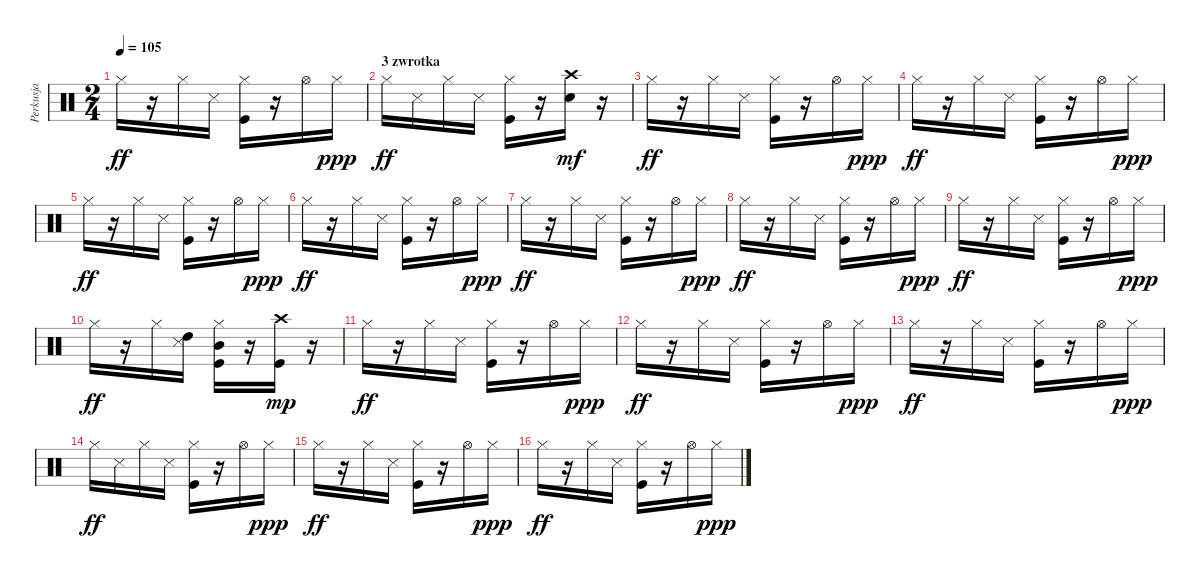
\track ("Perkusja" "Perkusja") {instrument percussion}
\staff {score}
\articulation defaults
\ts (2 4)
\tempo 105
\clef neutral
\ks c "Hi-Hat (closed)".16{dy ff}
r.16 "Hi-Hat (closed)".16 "Snare (side stick) 3".16 ("Kick (hit)" "Hi-Hat (closed)").16 r.16 "Hi-Hat (open)".16 "Hi-Hat (closed)".16{dy ppp} |
\section ("" "3 zwrotka ")
"Hi-Hat (closed)".16{dy ff} "Snare (side stick) 3".16 "Hi-Hat (closed)".16 "Snare (side stick) 3".16 ("Kick (hit)" "Hi-Hat (closed)").16 r.16 ("Snare (hit) 2" "Crash high (hit)").16{dy mf} r.16 |
"Hi-Hat (closed)".16{dy ff} r.16 "Hi-Hat (closed)".16 "Snare (side stick) 3".16 ("Kick (hit)" "Hi-Hat (closed)").16 r.16 "Hi-Hat (open)".16 "Hi-Hat (closed)".16{dy ppp} |
"Hi-Hat (closed)".16{dy ff} r.16 "Hi-Hat (closed)".16 "Snare (side stick) 3".16 ("Kick (hit)" "Hi-Hat (closed)").16 r.16 "Hi-Hat (open)".16 "Hi-Hat (closed)".16{dy ppp} |
"Hi-Hat (closed)".16{dy ff} r.16 "Hi-Hat (closed)".16 "Snare (side stick) 3".16 ("Kick (hit)" "Hi-Hat (closed)").16 r.16 "Hi-Hat (open)".16 "Hi-Hat (closed)".16{dy ppp} |
"Hi-Hat (closed)".16{dy ff} r.16 "Hi-Hat (closed)".16 "Snare (side stick) 3".16 ("Kick (hit)" "Hi-Hat (closed)").16 r.16 "Hi-Hat (open)".16 "Hi-Hat (closed)".16{dy ppp} |
"Hi-Hat (closed)".16{dy ff} r.16 "Hi-Hat (closed)".16 "Snare (side stick) 3".16 ("Kick (hit)" "Hi-Hat (closed)").16 r.16 "Hi-Hat (open)".16 "Hi-Hat (closed)".16{dy ppp} |
"Hi-Hat (closed)".16{dy ff} r.16 "Hi-Hat (closed)".16 "Snare (side stick) 3".16 ("Kick (hit)" "Hi-Hat (closed)").16 r.16 "Hi-Hat (open)".16 "Hi-Hat (closed)".16{dy ppp} |
"Hi-Hat (closed)".16{dy ff} r.16 "Hi-Hat (closed)".16 "Snare (side stick) 3".16 ("Kick (hit)" "Hi-Hat (closed)").16 r.16 "Hi-Hat (open)".16 "Hi-Hat (closed)".16{dy ppp} |
"Hi-Hat (closed)".16{dy ff} r.16 "Hi-Hat (closed)".16 ("Snare (side stick) 3" "High Tom (hit)").16 ("Kick (hit)" "Hi-Hat (closed)" "Mid Tom (hit)").16 r.16 ("Kick (hit)" "Crash high (hit)").16{dy mp} r.16 |
"Hi-Hat (closed)".16{dy ff} r.16 "Hi-Hat (closed)".16 "Snare (side stick) 3".16 ("Kick (hit)" "Hi-Hat (closed)").16 r.16 "Hi-Hat (open)".16 "Hi-Hat (closed)".16{dy ppp} |
"Hi-Hat (closed)".16{dy ff} r.16 "Hi-Hat (closed)".16 "Snare (side stick) 3".16 ("Kick (hit)" "Hi-Hat (closed)").16 r.16 "Hi-Hat (open)".16 "Hi-Hat (closed)".16{dy ppp} |
"Hi-Hat (closed)".16{dy ff} r.16 "Hi-Hat (closed)".16 "Snare (side stick) 3".16 ("Kick (hit)" "Hi-Hat (closed)").16 r.16 "Hi-Hat (open)".16 "Hi-Hat (closed)".16{dy ppp} |
"Hi-Hat (closed)".16{dy ff} "Snare (side stick) 3".16 "Hi-Hat (closed)".16 "Snare (side stick) 3".16 ("Kick (hit)" "Hi-Hat (closed)").16 r.16 "Hi-Hat (open)".16 "Hi-Hat (closed)".16{dy ppp} |
"Hi-Hat (closed)".16{dy ff} r.16 "Hi-Hat (closed)".16 "Snare (side stick) 3".16 ("Kick (hit)" "Hi-Hat (closed)").16 r.16 "Hi-Hat (open)".16 "Hi-Hat (closed)".16{dy ppp} |
"Hi-Hat (closed)".16{dy ff} r.16 "Hi-Hat (closed)".16 "Snare (side stick) 3".16 ("Kick (hit)" "Hi-Hat (closed)").16 r.16 "Hi-Hat (open)".16 "Hi-Hat (closed)".16{dy ppp}
